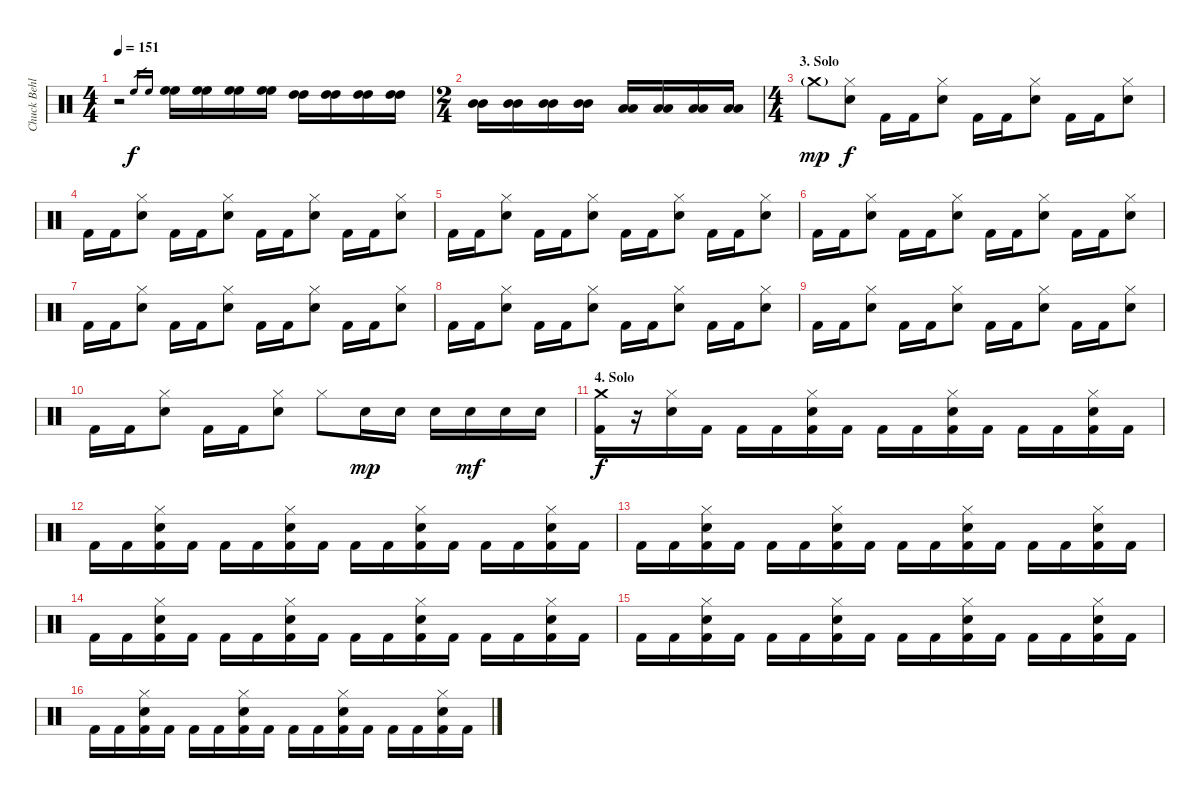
\track ("Chuck Behler" "Chuck Behl") {instrument percussion}
\staff {score}
\articulation defaults
\ts (4 4)
\tempo 151
\clef neutral
\ks c
r.2{dy f} "High Floor Tom (hit)".16{gr} "High Floor Tom (hit)".16{gr} ("High Floor Tom (hit)" "High Floor Tom (hit)").16 ("High Floor Tom (hit)" "High Floor Tom (hit)").16 ("High Floor Tom (hit)" "High Floor Tom (hit)").16 ("High Floor Tom (hit)" "High Floor Tom (hit)").16 ("High Tom (hit)" "High Tom (hit)").16 ("High Tom (hit)" "High Tom (hit)").16 ("High Tom (hit)" "High Tom (hit)").16 ("High Tom (hit)" "High Tom (hit)").16 |
\ts (2 4)
("Mid Tom (hit)" "Mid Tom (hit)").16 ("Mid Tom (hit)" "Mid Tom (hit)").16 ("Mid Tom (hit)" "Mid Tom (hit)").16 ("Mid Tom (hit)" "Mid Tom (hit)").16 ("Low Tom (hit)" "Low Tom (hit)").16 ("Low Tom (hit)" "Low Tom (hit)").16 ("Low Tom (hit)" "Low Tom (hit)").16 ("Low Tom (hit)" "Low Tom (hit)").16 |
\ts (4 4)
\section ("" "3. Solo")
"Crash medium (hit)"{g}.8{dy mp} ("Hi-Hat (closed)" "Electric Snare (hit)").8{dy f} "Kick (hit) 2".16 "Kick (hit) 2".16 ("Hi-Hat (closed)" "Electric Snare (hit)").8 "Kick (hit) 2".16 "Kick (hit) 2".16 ("Hi-Hat (closed)" "Electric Snare (hit)").8 "Kick (hit) 2".16 "Kick (hit) 2".16 ("Hi-Hat (closed)" "Electric Snare (hit)").8 |
"Kick (hit) 2".16 "Kick (hit) 2".16 ("Hi-Hat (closed)" "Electric Snare (hit)").8 "Kick (hit) 2".16 "Kick (hit) 2".16 ("Hi-Hat (closed)" "Electric Snare (hit)").8 "Kick (hit) 2".16 "Kick (hit) 2".16 ("Hi-Hat (closed)" "Electric Snare (hit)").8 "Kick (hit) 2".16 "Kick (hit) 2".16 ("Hi-Hat (closed)" "Electric Snare (hit)").8 |
"Kick (hit) 2".16 "Kick (hit) 2".16 ("Hi-Hat (closed)" "Electric Snare (hit)").8 "Kick (hit) 2".16 "Kick (hit) 2".16 ("Hi-Hat (closed)" "Electric Snare (hit)").8 "Kick (hit) 2".16 "Kick (hit) 2".16 ("Hi-Hat (closed)" "Electric Snare (hit)").8 "Kick (hit) 2".16 "Kick (hit) 2".16 ("Hi-Hat (closed)" "Electric Snare (hit)").8 |
"Kick (hit) 2".16 "Kick (hit) 2".16 ("Hi-Hat (closed)" "Electric Snare (hit)").8 "Kick (hit) 2".16 "Kick (hit) 2".16 ("Hi-Hat (closed)" "Electric Snare (hit)").8 "Kick (hit) 2".16 "Kick (hit) 2".16 ("Hi-Hat (closed)" "Electric Snare (hit)").8 "Kick (hit) 2".16 "Kick (hit) 2".16 ("Hi-Hat (closed)" "Electric Snare (hit)").8 |
"Kick (hit) 2".16 "Kick (hit) 2".16 ("Hi-Hat (closed)" "Electric Snare (hit)").8 "Kick (hit) 2".16 "Kick (hit) 2".16 ("Hi-Hat (closed)" "Electric Snare (hit)").8 "Kick (hit) 2".16 "Kick (hit) 2".16 ("Hi-Hat (closed)" "Electric Snare (hit)").8 "Kick (hit) 2".16 "Kick (hit) 2".16 ("Hi-Hat (closed)" "Electric Snare (hit)").8 |
"Kick (hit) 2".16 "Kick (hit) 2".16 ("Hi-Hat (closed)" "Electric Snare (hit)").8 "Kick (hit) 2".16 "Kick (hit) 2".16 ("Hi-Hat (closed)" "Electric Snare (hit)").8 "Kick (hit) 2".16 "Kick (hit) 2".16 ("Hi-Hat (closed)" "Electric Snare (hit)").8 "Kick (hit) 2".16 "Kick (hit) 2".16 ("Hi-Hat (closed)" "Electric Snare (hit)").8 |
"Kick (hit) 2".16 "Kick (hit) 2".16 ("Hi-Hat (closed)" "Electric Snare (hit)").8 "Kick (hit) 2".16 "Kick (hit) 2".16 ("Hi-Hat (closed)" "Electric Snare (hit)").8 "Kick (hit) 2".16 "Kick (hit) 2".16 ("Hi-Hat (closed)" "Electric Snare (hit)").8 "Kick (hit) 2".16 "Kick (hit) 2".16 ("Hi-Hat (closed)" "Electric Snare (hit)").8 |
"Kick (hit) 2".16 "Kick (hit) 2".16 ("Hi-Hat (closed)" "Electric Snare (hit)").8 "Kick (hit) 2".16 "Kick (hit) 2".16 ("Hi-Hat (closed)" "Electric Snare (hit)").8 "Hi-Hat (closed)".8 "Electric Snare (hit)".16{dy mp} "Electric Snare (hit)".16 "Electric Snare (hit)".16 "Electric Snare (hit)".16{dy mf} "Electric Snare (hit)".16 "Electric Snare (hit)".16 |
\section ("" "4. Solo")
("Crash medium (hit)" "Kick (hit) 2").16{dy f} r.16 ("Hi-Hat (closed)" "Electric Snare (hit)").16 "Kick (hit) 2".16 "Kick (hit) 2".16 "Kick (hit) 2".16 ("Hi-Hat (closed)" "Electric Snare (hit)" "Kick (hit) 2").16 "Kick (hit) 2".16 "Kick (hit) 2".16 "Kick (hit) 2".16 ("Hi-Hat (closed)" "Electric Snare (hit)" "Kick (hit) 2").16 "Kick (hit) 2".16 "Kick (hit) 2".16 "Kick (hit) 2".16 ("Hi-Hat (closed)" "Electric Snare (hit)" "Kick (hit) 2").16 "Kick (hit) 2".16 |
"Kick (hit) 2".16 "Kick (hit) 2".16 ("Hi-Hat (closed)" "Electric Snare (hit)" "Kick (hit) 2").16 "Kick (hit) 2".16 "Kick (hit) 2".16 "Kick (hit) 2".16 ("Hi-Hat (closed)" "Electric Snare (hit)" "Kick (hit) 2").16 "Kick (hit) 2".16 "Kick (hit) 2".16 "Kick (hit) 2".16 ("Hi-Hat (closed)" "Electric Snare (hit)" "Kick (hit) 2").16 "Kick (hit) 2".16 "Kick (hit) 2".16 "Kick (hit) 2".16 ("Hi-Hat (closed)" "Electric Snare (hit)" "Kick (hit) 2").16 "Kick (hit) 2".16 |
"Kick (hit) 2".16 "Kick (hit) 2".16 ("Hi-Hat (closed)" "Electric Snare (hit)" "Kick (hit) 2").16 "Kick (hit) 2".16 "Kick (hit) 2".16 "Kick (hit) 2".16 ("Hi-Hat (closed)" "Electric Snare (hit)" "Kick (hit) 2").16 "Kick (hit) 2".16 "Kick (hit) 2".16 "Kick (hit) 2".16 ("Hi-Hat (closed)" "Electric Snare (hit)" "Kick (hit) 2").16 "Kick (hit) 2".16 "Kick (hit) 2".16 "Kick (hit) 2".16 ("Hi-Hat (closed)" "Electric Snare (hit)" "Kick (hit) 2").16 "Kick (hit) 2".16 |
"Kick (hit) 2".16 "Kick (hit) 2".16 ("Hi-Hat (closed)" "Electric Snare (hit)" "Kick (hit) 2").16 "Kick (hit) 2".16 "Kick (hit) 2".16 "Kick (hit) 2".16 ("Hi-Hat (closed)" "Electric Snare (hit)" "Kick (hit) 2").16 "Kick (hit) 2".16 "Kick (hit) 2".16 "Kick (hit) 2".16 ("Hi-Hat (closed)" "Electric Snare (hit)" "Kick (hit) 2").16 "Kick (hit) 2".16 "Kick (hit) 2".16 "Kick (hit) 2".16 ("Hi-Hat (closed)" "Electric Snare (hit)" "Kick (hit) 2").16 "Kick (hit) 2".16 |
"Kick (hit) 2".16 "Kick (hit) 2".16 ("Hi-Hat (closed)" "Electric Snare (hit)" "Kick (hit) 2").16 "Kick (hit) 2".16 "Kick (hit) 2".16 "Kick (hit) 2".16 ("Hi-Hat (closed)" "Electric Snare (hit)" "Kick (hit) 2").16 "Kick (hit) 2".16 "Kick (hit) 2".16 "Kick (hit) 2".16 ("Hi-Hat (closed)" "Electric Snare (hit)" "Kick (hit) 2").16 "Kick (hit) 2".16 "Kick (hit) 2".16 "Kick (hit) 2".16 ("Hi-Hat (closed)" "Electric Snare (hit)" "Kick (hit) 2").16 "Kick (hit) 2".16 |
"Kick (hit) 2".16 "Kick (hit) 2".16 ("Hi-Hat (closed)" "Electric Snare (hit)" "Kick (hit) 2").16 "Kick (hit) 2".16 "Kick (hit) 2".16 "Kick (hit) 2".16 ("Hi-Hat (closed)" "Electric Snare (hit)" "Kick (hit) 2").16 "Kick (hit) 2".16 "Kick (hit) 2".16 "Kick (hit) 2".16 ("Hi-Hat (closed)" "Electric Snare (hit)" "Kick (hit) 2").16 "Kick (hit) 2".16 "Kick (hit) 2".16 "Kick (hit) 2".16 ("Hi-Hat (closed)" "Electric Snare (hit)" "Kick (hit) 2").16 "Kick (hit) 2".16
